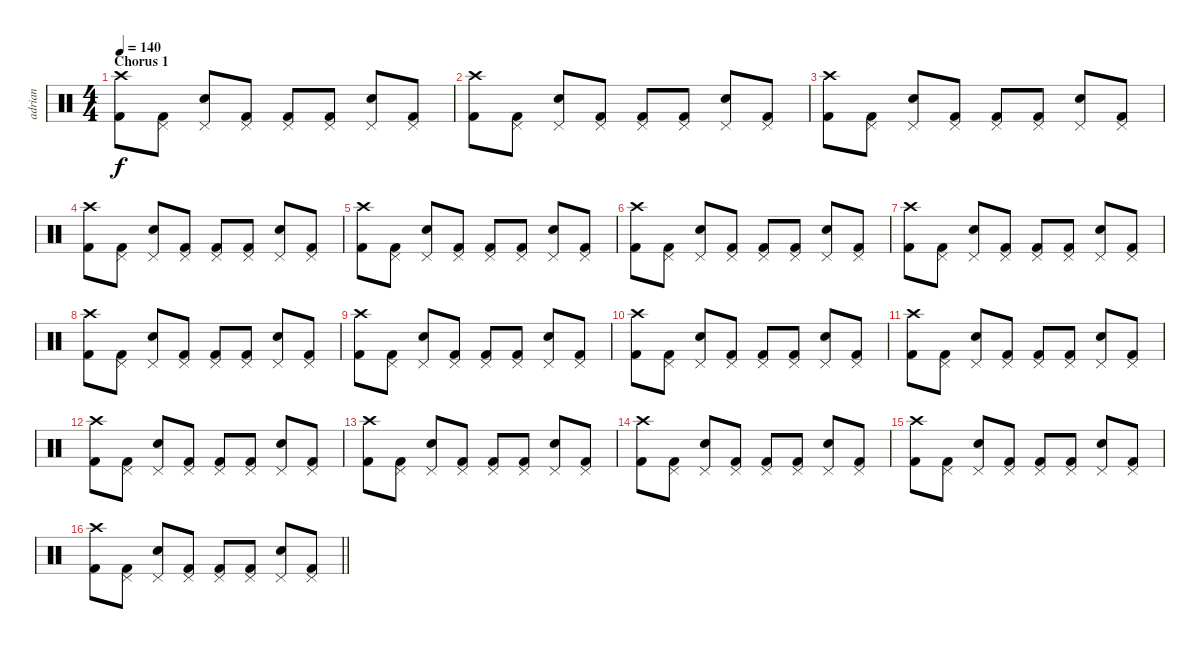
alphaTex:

\track ("adrian" "adrian") {instrument percussion}
\staff {score}
\articulation defaults
\ts (4 4)
\section ("" "Chorus 1")
\tempo 140
\clef neutral
\ks c
("Kick (hit) 2" "Crash high (hit)").8{dy f} ("Kick (hit) 2" "Pedal Hi-Hat (hit)").8 ("Electric Snare (hit)" "Pedal Hi-Hat (hit)").8 ("Kick (hit) 2" "Pedal Hi-Hat (hit)").8 ("Kick (hit) 2" "Pedal Hi-Hat (hit)").8 ("Kick (hit) 2" "Pedal Hi-Hat (hit)").8 ("Electric Snare (hit)" "Pedal Hi-Hat (hit)").8 ("Kick (hit) 2" "Pedal Hi-Hat (hit)").8 |
("Kick (hit) 2" "Crash high (hit)").8 ("Kick (hit) 2" "Pedal Hi-Hat (hit)").8 ("Electric Snare (hit)" "Pedal Hi-Hat (hit)").8 ("Kick (hit) 2" "Pedal Hi-Hat (hit)").8 ("Kick (hit) 2" "Pedal Hi-Hat (hit)").8 ("Kick (hit) 2" "Pedal Hi-Hat (hit)").8 ("Electric Snare (hit)" "Pedal Hi-Hat (hit)").8 ("Kick (hit) 2" "Pedal Hi-Hat (hit)").8 |
("Kick (hit) 2" "Crash high (hit)").8 ("Kick (hit) 2" "Pedal Hi-Hat (hit)").8 ("Electric Snare (hit)" "Pedal Hi-Hat (hit)").8 ("Kick (hit) 2" "Pedal Hi-Hat (hit)").8 ("Kick (hit) 2" "Pedal Hi-Hat (hit)").8 ("Kick (hit) 2" "Pedal Hi-Hat (hit)").8 ("Electric Snare (hit)" "Pedal Hi-Hat (hit)").8 ("Kick (hit) 2" "Pedal Hi-Hat (hit)").8 |
("Kick (hit) 2" "Crash high (hit)").8 ("Kick (hit) 2" "Pedal Hi-Hat (hit)").8 ("Electric Snare (hit)" "Pedal Hi-Hat (hit)").8 ("Kick (hit) 2" "Pedal Hi-Hat (hit)").8 ("Kick (hit) 2" "Pedal Hi-Hat (hit)").8 ("Kick (hit) 2" "Pedal Hi-Hat (hit)").8 ("Electric Snare (hit)" "Pedal Hi-Hat (hit)").8 ("Kick (hit) 2" "Pedal Hi-Hat (hit)").8 |
("Kick (hit) 2" "Crash high (hit)").8 ("Kick (hit) 2" "Pedal Hi-Hat (hit)").8 ("Electric Snare (hit)" "Pedal Hi-Hat (hit)").8 ("Kick (hit) 2" "Pedal Hi-Hat (hit)").8 ("Kick (hit) 2" "Pedal Hi-Hat (hit)").8 ("Kick (hit) 2" "Pedal Hi-Hat (hit)").8 ("Electric Snare (hit)" "Pedal Hi-Hat (hit)").8 ("Kick (hit) 2" "Pedal Hi-Hat (hit)").8 |
("Kick (hit) 2" "Crash high (hit)").8 ("Kick (hit) 2" "Pedal Hi-Hat (hit)").8 ("Electric Snare (hit)" "Pedal Hi-Hat (hit)").8 ("Kick (hit) 2" "Pedal Hi-Hat (hit)").8 ("Kick (hit) 2" "Pedal Hi-Hat (hit)").8 ("Kick (hit) 2" "Pedal Hi-Hat (hit)").8 ("Electric Snare (hit)" "Pedal Hi-Hat (hit)").8 ("Kick (hit) 2" "Pedal Hi-Hat (hit)").8 |
("Kick (hit) 2" "Crash high (hit)").8 ("Kick (hit) 2" "Pedal Hi-Hat (hit)").8 ("Electric Snare (hit)" "Pedal Hi-Hat (hit)").8 ("Kick (hit) 2" "Pedal Hi-Hat (hit)").8 ("Kick (hit) 2" "Pedal Hi-Hat (hit)").8 ("Kick (hit) 2" "Pedal Hi-Hat (hit)").8 ("Electric Snare (hit)" "Pedal Hi-Hat (hit)").8 ("Kick (hit) 2" "Pedal Hi-Hat (hit)").8 |
("Kick (hit) 2" "Crash high (hit)").8 ("Kick (hit) 2" "Pedal Hi-Hat (hit)").8 ("Electric Snare (hit)" "Pedal Hi-Hat (hit)").8 ("Kick (hit) 2" "Pedal Hi-Hat (hit)").8 ("Kick (hit) 2" "Pedal Hi-Hat (hit)").8 ("Kick (hit) 2" "Pedal Hi-Hat (hit)").8 ("Electric Snare (hit)" "Pedal Hi-Hat (hit)").8 ("Kick (hit) 2" "Pedal Hi-Hat (hit)").8 |
("Kick (hit) 2" "Crash high (hit)").8 ("Kick (hit) 2" "Pedal Hi-Hat (hit)").8 ("Electric Snare (hit)" "Pedal Hi-Hat (hit)").8 ("Kick (hit) 2" "Pedal Hi-Hat (hit)").8 ("Kick (hit) 2" "Pedal Hi-Hat (hit)").8 ("Kick (hit) 2" "Pedal Hi-Hat (hit)").8 ("Electric Snare (hit)" "Pedal Hi-Hat (hit)").8 ("Kick (hit) 2" "Pedal Hi-Hat (hit)").8 |
("Kick (hit) 2" "Crash high (hit)").8 ("Kick (hit) 2" "Pedal Hi-Hat (hit)").8 ("Electric Snare (hit)" "Pedal Hi-Hat (hit)").8 ("Kick (hit) 2" "Pedal Hi-Hat (hit)").8 ("Kick (hit) 2" "Pedal Hi-Hat (hit)").8 ("Kick (hit) 2" "Pedal Hi-Hat (hit)").8 ("Electric Snare (hit)" "Pedal Hi-Hat (hit)").8 ("Kick (hit) 2" "Pedal Hi-Hat (hit)").8 |
("Kick (hit) 2" "Crash high (hit)").8 ("Kick (hit) 2" "Pedal Hi-Hat (hit)").8 ("Electric Snare (hit)" "Pedal Hi-Hat (hit)").8 ("Kick (hit) 2" "Pedal Hi-Hat (hit)").8 ("Kick (hit) 2" "Pedal Hi-Hat (hit)").8 ("Kick (hit) 2" "Pedal Hi-Hat (hit)").8 ("Electric Snare (hit)" "Pedal Hi-Hat (hit)").8 ("Kick (hit) 2" "Pedal Hi-Hat (hit)").8 |
("Kick (hit) 2" "Crash high (hit)").8 ("Kick (hit) 2" "Pedal Hi-Hat (hit)").8 ("Electric Snare (hit)" "Pedal Hi-Hat (hit)").8 ("Kick (hit) 2" "Pedal Hi-Hat (hit)").8 ("Kick (hit) 2" "Pedal Hi-Hat (hit)").8 ("Kick (hit) 2" "Pedal Hi-Hat (hit)").8 ("Electric Snare (hit)" "Pedal Hi-Hat (hit)").8 ("Kick (hit) 2" "Pedal Hi-Hat (hit)").8 |
("Kick (hit) 2" "Crash high (hit)").8 ("Kick (hit) 2" "Pedal Hi-Hat (hit)").8 ("Electric Snare (hit)" "Pedal Hi-Hat (hit)").8 ("Kick (hit) 2" "Pedal Hi-Hat (hit)").8 ("Kick (hit) 2" "Pedal Hi-Hat (hit)").8 ("Kick (hit) 2" "Pedal Hi-Hat (hit)").8 ("Electric Snare (hit)" "Pedal Hi-Hat (hit)").8 ("Kick (hit) 2" "Pedal Hi-Hat (hit)").8 |
("Kick (hit) 2" "Crash high (hit)").8 ("Kick (hit) 2" "Pedal Hi-Hat (hit)").8 ("Electric Snare (hit)" "Pedal Hi-Hat (hit)").8 ("Kick (hit) 2" "Pedal Hi-Hat (hit)").8 ("Kick (hit) 2" "Pedal Hi-Hat (hit)").8 ("Kick (hit) 2" "Pedal Hi-Hat (hit)").8 ("Electric Snare (hit)" "Pedal Hi-Hat (hit)").8 ("Kick (hit) 2" "Pedal Hi-Hat (hit)").8 |
("Kick (hit) 2" "Crash high (hit)").8 ("Kick (hit) 2" "Pedal Hi-Hat (hit)").8 ("Electric Snare (hit)" "Pedal Hi-Hat (hit)").8 ("Kick (hit) 2" "Pedal Hi-Hat (hit)").8 ("Kick (hit) 2" "Pedal Hi-Hat (hit)").8 ("Kick (hit) 2" "Pedal Hi-Hat (hit)").8 ("Electric Snare (hit)" "Pedal Hi-Hat (hit)").8 ("Kick (hit) 2" "Pedal Hi-Hat (hit)").8 |
\barLineRight lightlight
("Kick (hit) 2" "Crash high (hit)").8 ("Kick (hit) 2" "Pedal Hi-Hat (hit)").8 ("Electric Snare (hit)" "Pedal Hi-Hat (hit)").8 ("Kick (hit) 2" "Pedal Hi-Hat (hit)").8 ("Kick (hit) 2" "Pedal Hi-Hat (hit)").8 ("Kick (hit) 2" "Pedal Hi-Hat (hit)").8 ("Electric Snare (hit)" "Pedal Hi-Hat (hit)").8 ("Kick (hit) 2" "Pedal Hi-Hat (hit)").8
